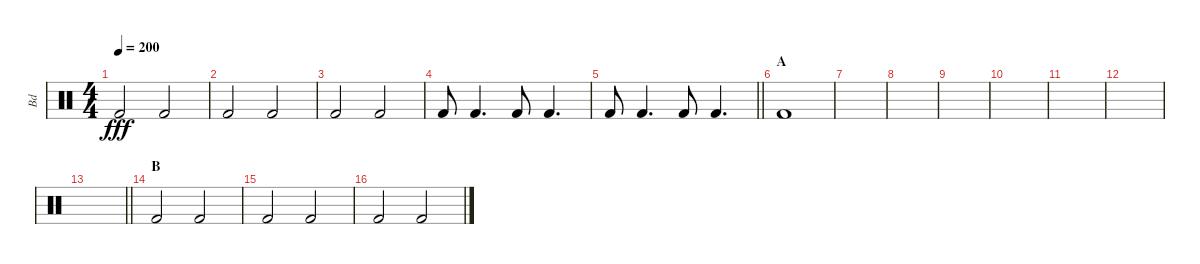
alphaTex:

\track ("Bd" "Bd") {instrument percussion}
\staff {score}
\articulation defaults
\ts (4 4)
\tempo 200
\clef neutral
\ks c "Kick (hit) 2".2{dy fff} "Kick (hit) 2".2
|
"Kick (hit) 2".2 "Kick (hit) 2".2 |
"Kick (hit) 2".2 "Kick (hit) 2".2 |
"Kick (hit) 2".8 "Kick (hit) 2".4{d} "Kick (hit) 2".8 "Kick (hit) 2".4{d} |
\barLineRight lightlight "Kick (hit) 2".8 "Kick (hit) 2".4{d} "Kick (hit) 2".8 "Kick (hit) 2".4{d}
|
\section ("" "A")
"Kick (hit) 2".1 |
|
|
|
|
|
|
\barLineRight lightlight
|
\section ("" "B")
"Kick (hit) 2".2 "Kick (hit) 2".2 |
"Kick (hit) 2".2 "Kick (hit) 2".2 |
"Kick (hit) 2".2 "Kick (hit) 2".2
